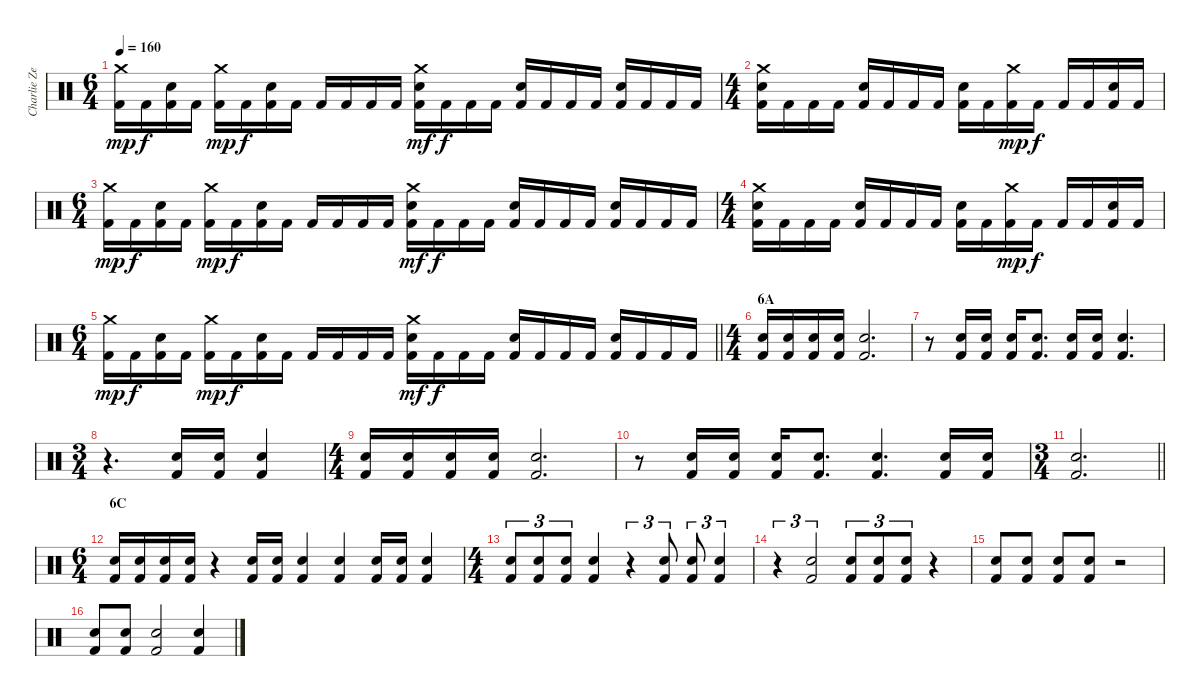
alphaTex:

\track ("Charlie Zeleny - Drums" "Charlie Ze") {instrument percussion}
\staff {score}
\articulation defaults
\ts (6 4)
\tempo 160
\clef neutral
\ks c
("Crash medium (hit)" "Kick (hit) 2").16{dy mp} "Kick (hit) 2".16{dy f} ("Electric Snare (hit)" "Kick (hit) 2").16 "Kick (hit) 2".16 ("Crash medium (hit)" "Kick (hit) 2").16{dy mp} "Kick (hit) 2".16{dy f} ("Electric Snare (hit)" "Kick (hit) 2").16 "Kick (hit) 2".16 "Kick (hit) 2".16 "Kick (hit) 2".16 "Kick (hit) 2".16 "Kick (hit) 2".16 ("Crash medium (hit)" "Electric Snare (hit)" "Kick (hit) 2").16{dy mf} "Kick (hit) 2".16{dy f} "Kick (hit) 2".16 "Kick (hit) 2".16 ("Electric Snare (hit)" "Kick (hit) 2").16 "Kick (hit) 2".16 "Kick (hit) 2".16 "Kick (hit) 2".16 ("Electric Snare (hit)" "Kick (hit) 2").16 "Kick (hit) 2".16 "Kick (hit) 2".16 "Kick (hit) 2".16 |
\ts (4 4)
("Crash medium (hit)" "Electric Snare (hit)" "Kick (hit) 2").16 "Kick (hit) 2".16 "Kick (hit) 2".16 "Kick (hit) 2".16 ("Electric Snare (hit)" "Kick (hit) 2").16 "Kick (hit) 2".16 "Kick (hit) 2".16 "Kick (hit) 2".16 ("Electric Snare (hit)" "Kick (hit) 2").16 "Kick (hit) 2".16 ("Crash medium (hit)" "Kick (hit) 2").16{dy mp} "Kick (hit) 2".16{dy f} "Kick (hit) 2".16 "Kick (hit) 2".16 ("Electric Snare (hit)" "Kick (hit) 2").16 "Kick (hit) 2".16 |
\ts (6 4)
("Crash medium (hit)" "Kick (hit) 2").16{dy mp} "Kick (hit) 2".16{dy f} ("Electric Snare (hit)" "Kick (hit) 2").16 "Kick (hit) 2".16 ("Crash medium (hit)" "Kick (hit) 2").16{dy mp} "Kick (hit) 2".16{dy f} ("Electric Snare (hit)" "Kick (hit) 2").16 "Kick (hit) 2".16 "Kick (hit) 2".16 "Kick (hit) 2".16 "Kick (hit) 2".16 "Kick (hit) 2".16 ("Crash medium (hit)" "Electric Snare (hit)" "Kick (hit) 2").16{dy mf} "Kick (hit) 2".16{dy f} "Kick (hit) 2".16 "Kick (hit) 2".16 ("Electric Snare (hit)" "Kick (hit) 2").16 "Kick (hit) 2".16 "Kick (hit) 2".16 "Kick (hit) 2".16 ("Electric Snare (hit)" "Kick (hit) 2").16 "Kick (hit) 2".16 "Kick (hit) 2".16 "Kick (hit) 2".16 |
\ts (4 4)
("Crash medium (hit)" "Electric Snare (hit)" "Kick (hit) 2").16 "Kick (hit) 2".16 "Kick (hit) 2".16 "Kick (hit) 2".16 ("Electric Snare (hit)" "Kick (hit) 2").16 "Kick (hit) 2".16 "Kick (hit) 2".16 "Kick (hit) 2".16 ("Electric Snare (hit)" "Kick (hit) 2").16 "Kick (hit) 2".16 ("Crash medium (hit)" "Kick (hit) 2").16{dy mp} "Kick (hit) 2".16{dy f} "Kick (hit) 2".16 "Kick (hit) 2".16 ("Electric Snare (hit)" "Kick (hit) 2").16 "Kick (hit) 2".16 |
\ts (6 4)
\barLineRight lightlight
("Crash medium (hit)" "Kick (hit) 2").16{dy mp} "Kick (hit) 2".16{dy f} ("Electric Snare (hit)" "Kick (hit) 2").16 "Kick (hit) 2".16 ("Crash medium (hit)" "Kick (hit) 2").16{dy mp} "Kick (hit) 2".16{dy f} ("Electric Snare (hit)" "Kick (hit) 2").16 "Kick (hit) 2".16 "Kick (hit) 2".16 "Kick (hit) 2".16 "Kick (hit) 2".16 "Kick (hit) 2".16 ("Crash medium (hit)" "Electric Snare (hit)" "Kick (hit) 2").16{dy mf} "Kick (hit) 2".16{dy f} "Kick (hit) 2".16 "Kick (hit) 2".16 ("Electric Snare (hit)" "Kick (hit) 2").16 "Kick (hit) 2".16 "Kick (hit) 2".16 "Kick (hit) 2".16 ("Electric Snare (hit)" "Kick (hit) 2").16 "Kick (hit) 2".16 "Kick (hit) 2".16 "Kick (hit) 2".16 |
\ts (4 4)
\section ("" "6A")
("Electric Snare (hit)" "Kick (hit) 2").16 ("Electric Snare (hit)" "Kick (hit) 2").16 ("Electric Snare (hit)" "Kick (hit) 2").16 ("Electric Snare (hit)" "Kick (hit) 2").16 ("Electric Snare (hit)" "Kick (hit) 2").2{d} |
r.8 ("Electric Snare (hit)" "Kick (hit) 2").16 ("Electric Snare (hit)" "Kick (hit) 2").16 ("Electric Snare (hit)" "Kick (hit) 2").16 ("Electric Snare (hit)" "Kick (hit) 2").8{d} ("Electric Snare (hit)" "Kick (hit) 2").16 ("Electric Snare (hit)" "Kick (hit) 2").16 ("Electric Snare (hit)" "Kick (hit) 2").4{d} |
\ts (3 4)
r.4{d} ("Electric Snare (hit)" "Kick (hit) 2").16 ("Electric Snare (hit)" "Kick (hit) 2").16 ("Electric Snare (hit)" "Kick (hit) 2").4 |
\ts (4 4)
("Electric Snare (hit)" "Kick (hit) 2").16 ("Electric Snare (hit)" "Kick (hit) 2").16 ("Electric Snare (hit)" "Kick (hit) 2").16 ("Electric Snare (hit)" "Kick (hit) 2").16 ("Electric Snare (hit)" "Kick (hit) 2").2{d} |
r.8 ("Electric Snare (hit)" "Kick (hit) 2").16 ("Electric Snare (hit)" "Kick (hit) 2").16 ("Electric Snare (hit)" "Kick (hit) 2").16 ("Electric Snare (hit)" "Kick (hit) 2").8{d} ("Electric Snare (hit)" "Kick (hit) 2").4{d} ("Electric Snare (hit)" "Kick (hit) 2").16 ("Electric Snare (hit)" "Kick (hit) 2").16 |
\ts (3 4)
\barLineRight lightlight
("Electric Snare (hit)" "Kick (hit) 2").2{d} |
\ts (6 4)
\section ("" "6C")
("Electric Snare (hit)" "Kick (hit) 2").16 ("Electric Snare (hit)" "Kick (hit) 2").16 ("Electric Snare (hit)" "Kick (hit) 2").16 ("Electric Snare (hit)" "Kick (hit) 2").16 r.4 ("Electric Snare (hit)" "Kick (hit) 2").16 ("Electric Snare (hit)" "Kick (hit) 2").16 ("Electric Snare (hit)" "Kick (hit) 2").4 ("Electric Snare (hit)" "Kick (hit) 2").4 ("Electric Snare (hit)" "Kick (hit) 2").16 ("Electric Snare (hit)" "Kick (hit) 2").16 ("Electric Snare (hit)" "Kick (hit) 2").4 |
\ts (4 4)
("Electric Snare (hit)" "Kick (hit) 2").8{tu (3 2)} ("Electric Snare (hit)" "Kick (hit) 2").8{tu (3 2)} ("Electric Snare (hit)" "Kick (hit) 2").8{tu (3 2)} ("Electric Snare (hit)" "Kick (hit) 2").4 r.4{tu (3 2)} ("Electric Snare (hit)" "Kick (hit) 2").8{tu (3 2)} ("Electric Snare (hit)" "Kick (hit) 2").8{tu (3 2)} ("Electric Snare (hit)" "Kick (hit) 2").4{tu (3 2)} |
r.4{tu (3 2)} ("Electric Snare (hit)" "Kick (hit) 2").2{tu (3 2)} ("Electric Snare (hit)" "Kick (hit) 2").8{tu (3 2)} ("Electric Snare (hit)" "Kick (hit) 2").8{tu (3 2)} ("Electric Snare (hit)" "Kick (hit) 2").8{tu (3 2)} r.4 |
("Electric Snare (hit)" "Kick (hit) 2").8 ("Electric Snare (hit)" "Kick (hit) 2").8 ("Electric Snare (hit)" "Kick (hit) 2").8 ("Electric Snare (hit)" "Kick (hit) 2").8 r.2 |
("Electric Snare (hit)" "Kick (hit) 2").8 ("Electric Snare (hit)" "Kick (hit) 2").8 ("Electric Snare (hit)" "Kick (hit) 2").2 ("Electric Snare (hit)" "Kick (hit) 2").4
